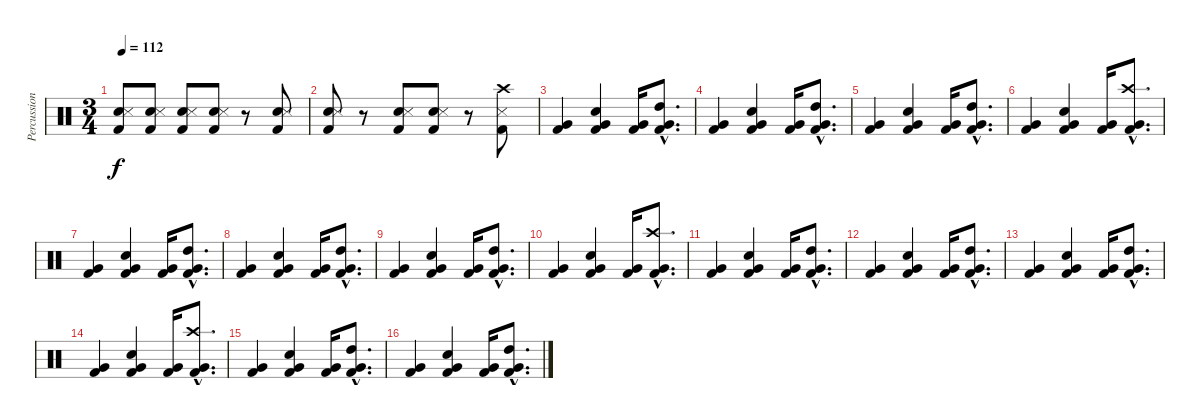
\track ("Percussions" "Percussion") {instrument percussion}
\staff {score}
\articulation defaults
\ts (3 4)
\tempo 112
\clef neutral
\ks c
("Electric Snare (hit)" "Snare (side stick) 3" "Kick (hit) 2").8{dy f} ("Electric Snare (hit)" "Snare (side stick) 3" "Kick (hit) 2").8 ("Electric Snare (hit)" "Snare (side stick) 3" "Kick (hit) 2").8 ("Electric Snare (hit)" "Snare (side stick) 3" "Kick (hit) 2").8 r.8 ("Electric Snare (hit)" "Snare (side stick) 3" "Kick (hit) 2").8 |
("Electric Snare (hit)" "Snare (side stick) 3" "Kick (hit) 2").8 r.8 ("Electric Snare (hit)" "Snare (side stick) 3" "Kick (hit) 2").8 ("Electric Snare (hit)" "Snare (side stick) 3" "Kick (hit) 2").8 r.8 ("Crash high (hit)" "Snare (side stick) 3" "Kick (hit) 2").8 |
("Kick (hit) 2" "Very Low Tom (hit)").4 ("Kick (hit) 2" "Very Low Tom (hit)" "Electric Snare (hit)").4 ("Kick (hit) 2" "Very Low Tom (hit)").16 ("High Tom (hit)"{hac} "Kick (hit) 2"{hac} "Very Low Tom (hit)"{hac}).8{d} |
("Kick (hit) 2" "Very Low Tom (hit)").4 ("Kick (hit) 2" "Very Low Tom (hit)" "Electric Snare (hit)").4 ("Kick (hit) 2" "Very Low Tom (hit)").16 ("High Tom (hit)"{hac} "Kick (hit) 2"{hac} "Very Low Tom (hit)"{hac}).8{d} |
("Kick (hit) 2" "Very Low Tom (hit)").4 ("Kick (hit) 2" "Very Low Tom (hit)" "Electric Snare (hit)").4 ("Kick (hit) 2" "Very Low Tom (hit)").16 ("High Tom (hit)"{hac} "Kick (hit) 2"{hac} "Very Low Tom (hit)"{hac}).8{d} |
("Kick (hit) 2" "Very Low Tom (hit)").4 ("Kick (hit) 2" "Very Low Tom (hit)" "Electric Snare (hit)").4 ("Kick (hit) 2" "Very Low Tom (hit)").16 ("Crash high (hit)"{hac} "Kick (hit) 2"{hac} "Very Low Tom (hit)"{hac}).8{d} |
("Kick (hit) 2" "Very Low Tom (hit)").4 ("Kick (hit) 2" "Very Low Tom (hit)" "Electric Snare (hit)").4 ("Kick (hit) 2" "Very Low Tom (hit)").16 ("High Tom (hit)"{hac} "Kick (hit) 2"{hac} "Very Low Tom (hit)"{hac}).8{d} |
("Kick (hit) 2" "Very Low Tom (hit)").4 ("Kick (hit) 2" "Very Low Tom (hit)" "Electric Snare (hit)").4 ("Kick (hit) 2" "Very Low Tom (hit)").16 ("High Tom (hit)"{hac} "Kick (hit) 2"{hac} "Very Low Tom (hit)"{hac}).8{d} |
("Kick (hit) 2" "Very Low Tom (hit)").4 ("Kick (hit) 2" "Very Low Tom (hit)" "Electric Snare (hit)").4 ("Kick (hit) 2" "Very Low Tom (hit)").16 ("High Tom (hit)"{hac} "Kick (hit) 2"{hac} "Very Low Tom (hit)"{hac}).8{d} |
("Kick (hit) 2" "Very Low Tom (hit)").4 ("Kick (hit) 2" "Very Low Tom (hit)" "Electric Snare (hit)").4 ("Kick (hit) 2" "Very Low Tom (hit)").16 ("Crash high (hit)"{hac} "Kick (hit) 2"{hac} "Very Low Tom (hit)"{hac}).8{d} |
("Kick (hit) 2" "Very Low Tom (hit)").4 ("Kick (hit) 2" "Very Low Tom (hit)" "Electric Snare (hit)").4 ("Kick (hit) 2" "Very Low Tom (hit)").16 ("High Tom (hit)"{hac} "Kick (hit) 2"{hac} "Very Low Tom (hit)"{hac}).8{d} |
("Kick (hit) 2" "Very Low Tom (hit)").4 ("Kick (hit) 2" "Very Low Tom (hit)" "Electric Snare (hit)").4 ("Kick (hit) 2" "Very Low Tom (hit)").16 ("High Tom (hit)"{hac} "Kick (hit) 2"{hac} "Very Low Tom (hit)"{hac}).8{d} |
("Kick (hit) 2" "Very Low Tom (hit)").4 ("Kick (hit) 2" "Very Low Tom (hit)" "Electric Snare (hit)").4 ("Kick (hit) 2" "Very Low Tom (hit)").16 ("High Tom (hit)"{hac} "Kick (hit) 2"{hac} "Very Low Tom (hit)"{hac}).8{d} |
("Kick (hit) 2" "Very Low Tom (hit)").4 ("Kick (hit) 2" "Very Low Tom (hit)" "Electric Snare (hit)").4 ("Kick (hit) 2" "Very Low Tom (hit)").16 ("Crash high (hit)"{hac} "Kick (hit) 2"{hac} "Very Low Tom (hit)"{hac}).8{d} |
("Kick (hit) 2" "Very Low Tom (hit)").4 ("Kick (hit) 2" "Very Low Tom (hit)" "Electric Snare (hit)").4 ("Kick (hit) 2" "Very Low Tom (hit)").16 ("High Tom (hit)"{hac} "Kick (hit) 2"{hac} "Very Low Tom (hit)"{hac}).8{d} |
("Kick (hit) 2" "Very Low Tom (hit)").4 ("Kick (hit) 2" "Very Low Tom (hit)" "Electric Snare (hit)").4 ("Kick (hit) 2" "Very Low Tom (hit)").16 ("High Tom (hit)"{hac} "Kick (hit) 2"{hac} "Very Low Tom (hit)"{hac}).8{d}
